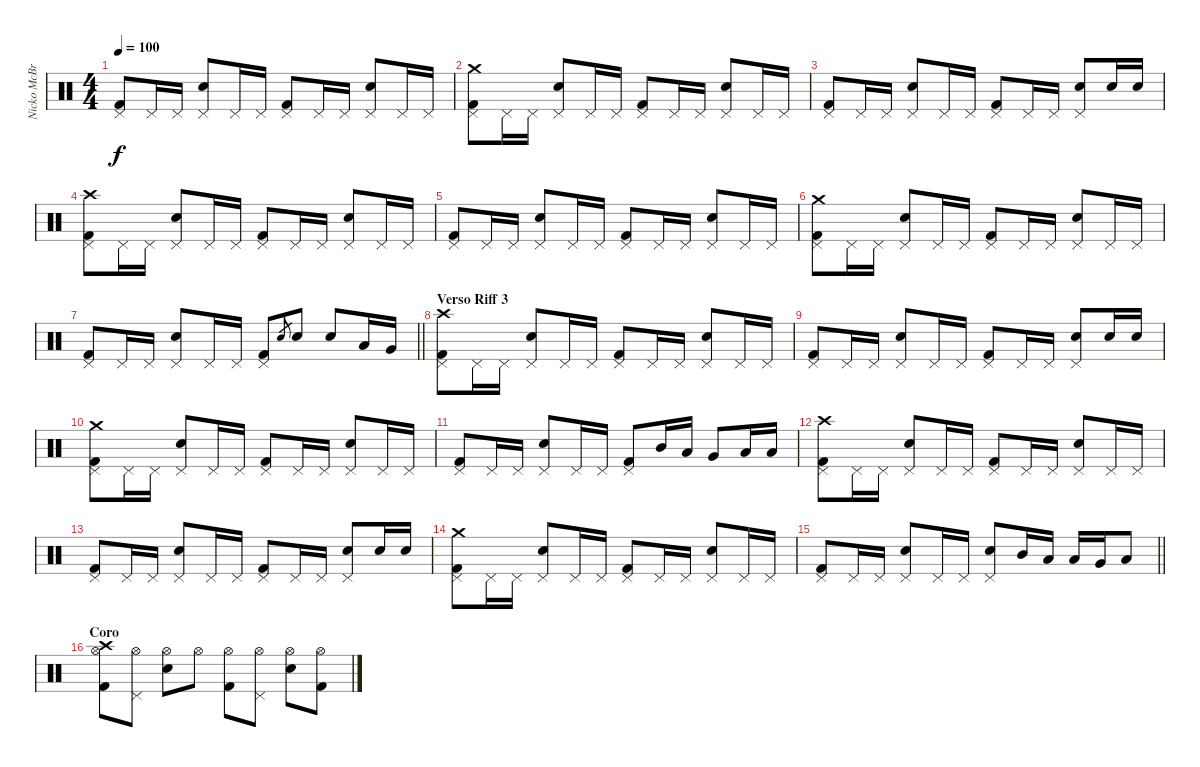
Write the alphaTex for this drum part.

\track ("Nicko McBrain" "Nicko McBr") {instrument percussion}
\staff {score}
\articulation defaults
\ts (4 4)
\tempo 100
\clef neutral
\ks c
("Kick (hit) 2" "Pedal Hi-Hat (hit)").8{dy f} "Pedal Hi-Hat (hit)".16 "Pedal Hi-Hat (hit)".16 ("Snare (hit) 2" "Pedal Hi-Hat (hit)").8 "Pedal Hi-Hat (hit)".16 "Pedal Hi-Hat (hit)".16 ("Kick (hit) 2" "Pedal Hi-Hat (hit)").8 "Pedal Hi-Hat (hit)".16 "Pedal Hi-Hat (hit)".16 ("Snare (hit) 2" "Pedal Hi-Hat (hit)").8 "Pedal Hi-Hat (hit)".16 "Pedal Hi-Hat (hit)".16 |
("Kick (hit) 2" "Pedal Hi-Hat (hit)" "Crash medium (hit)").8 "Pedal Hi-Hat (hit)".16 "Pedal Hi-Hat (hit)".16 ("Snare (hit) 2" "Pedal Hi-Hat (hit)").8 "Pedal Hi-Hat (hit)".16 "Pedal Hi-Hat (hit)".16 ("Kick (hit) 2" "Pedal Hi-Hat (hit)").8 "Pedal Hi-Hat (hit)".16 "Pedal Hi-Hat (hit)".16 ("Snare (hit) 2" "Pedal Hi-Hat (hit)").8 "Pedal Hi-Hat (hit)".16 "Pedal Hi-Hat (hit)".16 |
("Kick (hit) 2" "Pedal Hi-Hat (hit)").8 "Pedal Hi-Hat (hit)".16 "Pedal Hi-Hat (hit)".16 ("Snare (hit) 2" "Pedal Hi-Hat (hit)").8 "Pedal Hi-Hat (hit)".16 "Pedal Hi-Hat (hit)".16 ("Kick (hit) 2" "Pedal Hi-Hat (hit)").8 "Pedal Hi-Hat (hit)".16 "Pedal Hi-Hat (hit)".16 ("Snare (hit) 2" "Pedal Hi-Hat (hit)").8 "Snare (hit) 2".16 "Snare (hit) 2".16 |
("Kick (hit) 2" "Pedal Hi-Hat (hit)" "Crash high (hit)").8 "Pedal Hi-Hat (hit)".16 "Pedal Hi-Hat (hit)".16 ("Snare (hit) 2" "Pedal Hi-Hat (hit)").8 "Pedal Hi-Hat (hit)".16 "Pedal Hi-Hat (hit)".16 ("Kick (hit) 2" "Pedal Hi-Hat (hit)").8 "Pedal Hi-Hat (hit)".16 "Pedal Hi-Hat (hit)".16 ("Snare (hit) 2" "Pedal Hi-Hat (hit)").8 "Pedal Hi-Hat (hit)".16 "Pedal Hi-Hat (hit)".16 |
("Kick (hit) 2" "Pedal Hi-Hat (hit)").8 "Pedal Hi-Hat (hit)".16 "Pedal Hi-Hat (hit)".16 ("Snare (hit) 2" "Pedal Hi-Hat (hit)").8 "Pedal Hi-Hat (hit)".16 "Pedal Hi-Hat (hit)".16 ("Kick (hit) 2" "Pedal Hi-Hat (hit)").8 "Pedal Hi-Hat (hit)".16 "Pedal Hi-Hat (hit)".16 ("Snare (hit) 2" "Pedal Hi-Hat (hit)").8 "Pedal Hi-Hat (hit)".16 "Pedal Hi-Hat (hit)".16 |
("Kick (hit) 2" "Pedal Hi-Hat (hit)" "Crash medium (hit)").8 "Pedal Hi-Hat (hit)".16 "Pedal Hi-Hat (hit)".16 ("Snare (hit) 2" "Pedal Hi-Hat (hit)").8 "Pedal Hi-Hat (hit)".16 "Pedal Hi-Hat (hit)".16 ("Kick (hit) 2" "Pedal Hi-Hat (hit)").8 "Pedal Hi-Hat (hit)".16 "Pedal Hi-Hat (hit)".16 ("Snare (hit) 2" "Pedal Hi-Hat (hit)").8 "Pedal Hi-Hat (hit)".16 "Pedal Hi-Hat (hit)".16 |
\barLineRight lightlight
("Kick (hit) 2" "Pedal Hi-Hat (hit)").8 "Pedal Hi-Hat (hit)".16 "Pedal Hi-Hat (hit)".16 ("Snare (hit) 2" "Pedal Hi-Hat (hit)").8 "Pedal Hi-Hat (hit)".16 "Pedal Hi-Hat (hit)".16 ("Kick (hit) 2" "Pedal Hi-Hat (hit)").8 "Snare (hit) 2".8{gr} "Snare (hit) 2".8 "Snare (hit) 2".8 "Low Tom (hit)".16 "Very Low Tom (hit)".16 |
\section ("" "Verso Riff 3")
("Kick (hit) 2" "Pedal Hi-Hat (hit)" "Crash high (hit)").8 "Pedal Hi-Hat (hit)".16 "Pedal Hi-Hat (hit)".16 ("Snare (hit) 2" "Pedal Hi-Hat (hit)").8 "Pedal Hi-Hat (hit)".16 "Pedal Hi-Hat (hit)".16 ("Kick (hit) 2" "Pedal Hi-Hat (hit)").8 "Pedal Hi-Hat (hit)".16 "Pedal Hi-Hat (hit)".16 ("Snare (hit) 2" "Pedal Hi-Hat (hit)").8 "Pedal Hi-Hat (hit)".16 "Pedal Hi-Hat (hit)".16 |
("Kick (hit) 2" "Pedal Hi-Hat (hit)").8 "Pedal Hi-Hat (hit)".16 "Pedal Hi-Hat (hit)".16 ("Snare (hit) 2" "Pedal Hi-Hat (hit)").8 "Pedal Hi-Hat (hit)".16 "Pedal Hi-Hat (hit)".16 ("Kick (hit) 2" "Pedal Hi-Hat (hit)").8 "Pedal Hi-Hat (hit)".16 "Pedal Hi-Hat (hit)".16 ("Snare (hit) 2" "Pedal Hi-Hat (hit)").8 "Snare (hit) 2".16 "Snare (hit) 2".16 |
("Kick (hit) 2" "Pedal Hi-Hat (hit)" "Crash medium (hit)").8 "Pedal Hi-Hat (hit)".16 "Pedal Hi-Hat (hit)".16 ("Snare (hit) 2" "Pedal Hi-Hat (hit)").8 "Pedal Hi-Hat (hit)".16 "Pedal Hi-Hat (hit)".16 ("Kick (hit) 2" "Pedal Hi-Hat (hit)").8 "Pedal Hi-Hat (hit)".16 "Pedal Hi-Hat (hit)".16 ("Snare (hit) 2" "Pedal Hi-Hat (hit)").8 "Pedal Hi-Hat (hit)".16 "Pedal Hi-Hat (hit)".16 |
("Kick (hit) 2" "Pedal Hi-Hat (hit)").8 "Pedal Hi-Hat (hit)".16 "Pedal Hi-Hat (hit)".16 ("Snare (hit) 2" "Pedal Hi-Hat (hit)").8 "Pedal Hi-Hat (hit)".16 "Pedal Hi-Hat (hit)".16 ("Kick (hit) 2" "Pedal Hi-Hat (hit)").8 "Mid Tom (hit)".16 "Low Tom (hit)".16 "Very Low Tom (hit)".8 "Low Tom (hit)".16 "Low Floor Tom (hit)".16 |
("Kick (hit) 2" "Pedal Hi-Hat (hit)" "Crash high (hit)").8 "Pedal Hi-Hat (hit)".16 "Pedal Hi-Hat (hit)".16 ("Snare (hit) 2" "Pedal Hi-Hat (hit)").8 "Pedal Hi-Hat (hit)".16 "Pedal Hi-Hat (hit)".16 ("Kick (hit) 2" "Pedal Hi-Hat (hit)").8 "Pedal Hi-Hat (hit)".16 "Pedal Hi-Hat (hit)".16 ("Snare (hit) 2" "Pedal Hi-Hat (hit)").8 "Pedal Hi-Hat (hit)".16 "Pedal Hi-Hat (hit)".16 |
("Kick (hit) 2" "Pedal Hi-Hat (hit)").8 "Pedal Hi-Hat (hit)".16 "Pedal Hi-Hat (hit)".16 ("Snare (hit) 2" "Pedal Hi-Hat (hit)").8 "Pedal Hi-Hat (hit)".16 "Pedal Hi-Hat (hit)".16 ("Kick (hit) 2" "Pedal Hi-Hat (hit)").8 "Pedal Hi-Hat (hit)".16 "Pedal Hi-Hat (hit)".16 ("Snare (hit) 2" "Pedal Hi-Hat (hit)").8 "Snare (hit) 2".16 "Snare (hit) 2".16 |
("Kick (hit) 2" "Pedal Hi-Hat (hit)" "Crash medium (hit)").8 "Pedal Hi-Hat (hit)".16 "Pedal Hi-Hat (hit)".16 ("Snare (hit) 2" "Pedal Hi-Hat (hit)").8 "Pedal Hi-Hat (hit)".16 "Pedal Hi-Hat (hit)".16 ("Kick (hit) 2" "Pedal Hi-Hat (hit)").8 "Pedal Hi-Hat (hit)".16 "Pedal Hi-Hat (hit)".16 ("Snare (hit) 2" "Pedal Hi-Hat (hit)").8 "Pedal Hi-Hat (hit)".16 "Pedal Hi-Hat (hit)".16 |
\barLineRight lightlight
("Kick (hit) 2" "Pedal Hi-Hat (hit)").8 "Pedal Hi-Hat (hit)".16 "Pedal Hi-Hat (hit)".16 ("Snare (hit) 2" "Pedal Hi-Hat (hit)").8 "Pedal Hi-Hat (hit)".16 "Pedal Hi-Hat (hit)".16 ("Snare (hit) 2" "Pedal Hi-Hat (hit)").8 "Mid Tom (hit)".16 "Low Tom (hit)".16 "Low Floor Tom (hit)".16 "Very Low Tom (hit)".16 "Low Floor Tom (hit)".8 |
\section ("" "Coro")
("Kick (hit) 2" "Hi-Hat (open)" "Crash high (hit)").8 ("Pedal Hi-Hat (hit)" "Hi-Hat (open)").8 ("Snare (hit) 2" "Hi-Hat (open)").8 "Hi-Hat (open)".8 ("Kick (hit) 2" "Hi-Hat (open)").8 ("Pedal Hi-Hat (hit)" "Hi-Hat (open)").8 ("Snare (hit) 2" "Hi-Hat (open)").8 ("Kick (hit) 2" "Hi-Hat (open)").8
